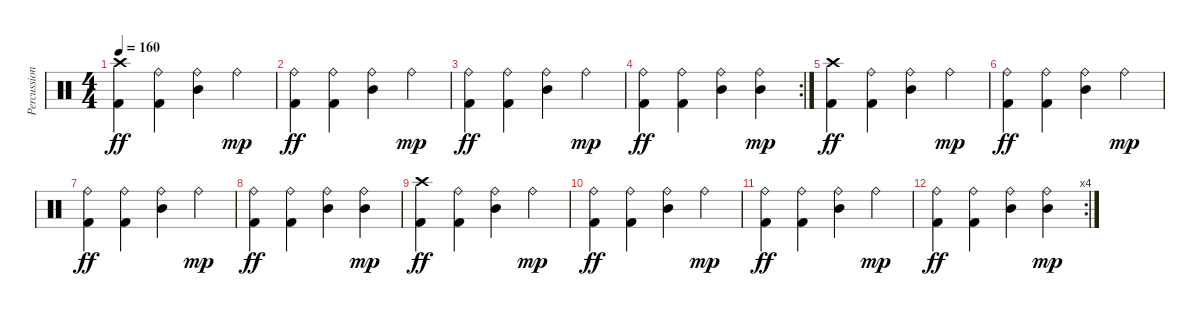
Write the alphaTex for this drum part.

\track ("Percussions" "Percussion") {instrument percussion}
\staff {score}
\articulation defaults
\ts (4 4)
\tempo 160
\clef neutral
\ks c
("Crash high (hit)" "Kick (hit) 2").4{dy ff} ("Ride (bell)" "Kick (hit) 2").4 ("Ride (bell)" "Mid Tom (hit)").4 "Ride (bell)".4{dy mp} |
("Ride (bell)" "Kick (hit) 2").4{dy ff} ("Ride (bell)" "Kick (hit) 2").4 ("Ride (bell)" "Mid Tom (hit)").4 "Ride (bell)".4{dy mp} |
("Ride (bell)" "Kick (hit) 2").4{dy ff} ("Ride (bell)" "Kick (hit) 2").4 ("Ride (bell)" "Mid Tom (hit)").4 "Ride (bell)".4{dy mp} |
\rc 2
("Ride (bell)" "Kick (hit) 2").4{dy ff} ("Ride (bell)" "Kick (hit) 2").4 ("Ride (bell)" "Mid Tom (hit)").4 ("Ride (bell)" "Mid Tom (hit)").4{dy mp} |
("Crash high (hit)" "Kick (hit) 2").4{dy ff} ("Ride (bell)" "Kick (hit) 2").4 ("Ride (bell)" "Mid Tom (hit)").4 "Ride (bell)".4{dy mp} |
("Ride (bell)" "Kick (hit) 2").4{dy ff} ("Ride (bell)" "Kick (hit) 2").4 ("Ride (bell)" "Mid Tom (hit)").4 "Ride (bell)".4{dy mp} |
("Ride (bell)" "Kick (hit) 2").4{dy ff} ("Ride (bell)" "Kick (hit) 2").4 ("Ride (bell)" "Mid Tom (hit)").4 "Ride (bell)".4{dy mp} |
("Ride (bell)" "Kick (hit) 2").4{dy ff} ("Ride (bell)" "Kick (hit) 2").4 ("Ride (bell)" "Mid Tom (hit)").4 ("Ride (bell)" "Mid Tom (hit)").4{dy mp} |
("Crash high (hit)" "Kick (hit) 2").4{dy ff} ("Ride (bell)" "Kick (hit) 2").4 ("Ride (bell)" "Mid Tom (hit)").4 "Ride (bell)".4{dy mp} |
("Ride (bell)" "Kick (hit) 2").4{dy ff} ("Ride (bell)" "Kick (hit) 2").4 ("Ride (bell)" "Mid Tom (hit)").4 "Ride (bell)".4{dy mp} |
("Ride (bell)" "Kick (hit) 2").4{dy ff} ("Ride (bell)" "Kick (hit) 2").4 ("Ride (bell)" "Mid Tom (hit)").4 "Ride (bell)".4{dy mp} |
\rc 4
("Ride (bell)" "Kick (hit) 2").4{dy ff} ("Ride (bell)" "Kick (hit) 2").4 ("Ride (bell)" "Mid Tom (hit)").4 ("Ride (bell)" "Mid Tom (hit)").4{dy mp}
